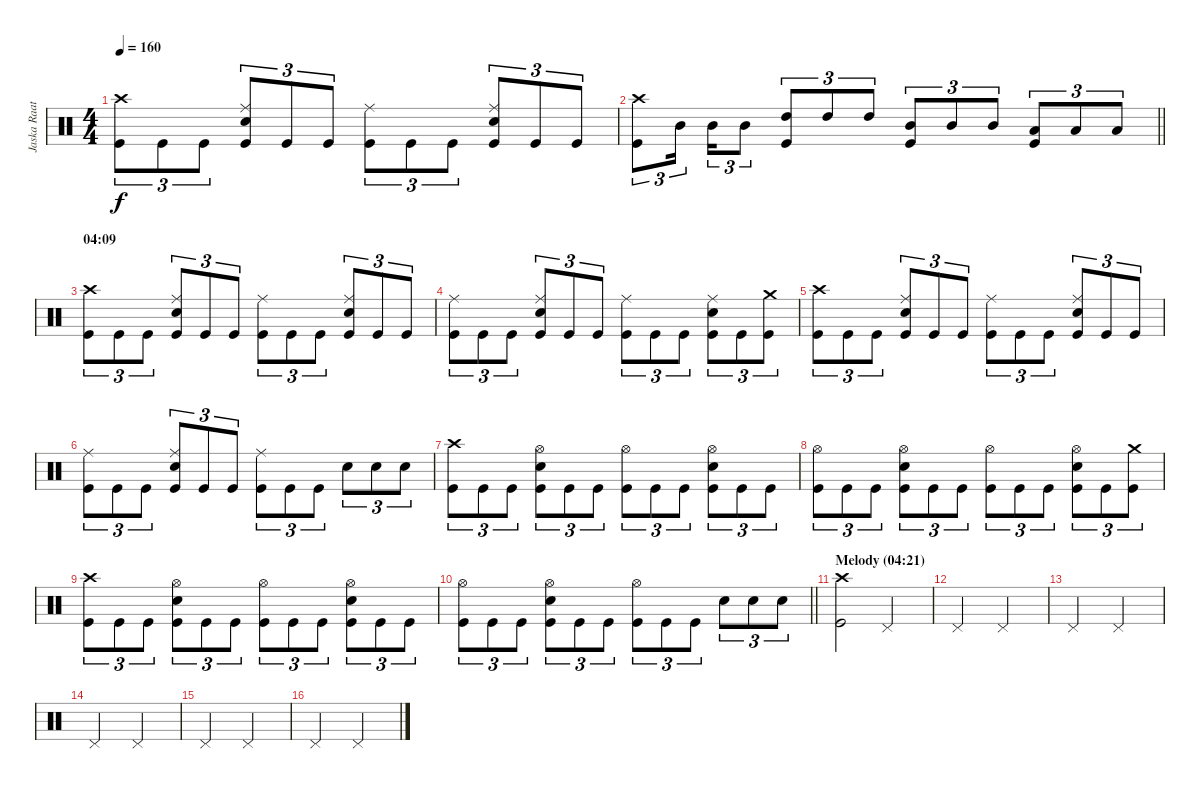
\track ("Jaska Raatikainen" "Jaska Raat") {instrument percussion}
\staff {score}
\articulation defaults
\ts (4 4)
\tempo 160
\clef neutral
\ks c
("Crash high (hit)" "Kick (hit)").8{tu (3 2) dy f} "Kick (hit)".8{tu (3 2)} "Kick (hit)".8{tu (3 2)} ("Ride (middle)" "Electric Snare (hit)" "Kick (hit)").8{tu (3 2)} "Kick (hit)".8{tu (3 2)} "Kick (hit)".8{tu (3 2)} ("Ride (middle)" "Kick (hit)").8{tu (3 2)} "Kick (hit)".8{tu (3 2)} "Kick (hit)".8{tu (3 2)} ("Ride (middle)" "Electric Snare (hit)" "Kick (hit)").8{tu (3 2)} "Kick (hit)".8{tu (3 2)} "Kick (hit)".8{tu (3 2)} |
\barLineRight lightlight
("Crash high (hit)" "Kick (hit)").8{tu (3 2)} "Mid Tom (hit)".16{tu (3 2) beam splitsecondary} "Mid Tom (hit)".16{tu (3 2)} "Mid Tom (hit)".8{tu (3 2)} ("High Tom (hit)" "Kick (hit)").8{tu (3 2)} "High Tom (hit)".8{tu (3 2)} "High Tom (hit)".8{tu (3 2)} ("Mid Tom (hit)" "Kick (hit)").8{tu (3 2)} "Mid Tom (hit)".8{tu (3 2)} "Mid Tom (hit)".8{tu (3 2)} ("Low Tom (hit)" "Kick (hit)").8{tu (3 2)} "Low Tom (hit)".8{tu (3 2)} "Low Tom (hit)".8{tu (3 2)} |
\section ("" "04:09")
("Crash high (hit)" "Kick (hit)").8{tu (3 2)} "Kick (hit)".8{tu (3 2)} "Kick (hit)".8{tu (3 2)} ("Ride (middle)" "Electric Snare (hit)" "Kick (hit)").8{tu (3 2)} "Kick (hit)".8{tu (3 2)} "Kick (hit)".8{tu (3 2)} ("Ride (middle)" "Kick (hit)").8{tu (3 2)} "Kick (hit)".8{tu (3 2)} "Kick (hit)".8{tu (3 2)} ("Ride (middle)" "Electric Snare (hit)" "Kick (hit)").8{tu (3 2)} "Kick (hit)".8{tu (3 2)} "Kick (hit)".8{tu (3 2)} |
("Ride (middle)" "Kick (hit)").8{tu (3 2)} "Kick (hit)".8{tu (3 2)} "Kick (hit)".8{tu (3 2)} ("Ride (middle)" "Electric Snare (hit)" "Kick (hit)").8{tu (3 2)} "Kick (hit)".8{tu (3 2)} "Kick (hit)".8{tu (3 2)} ("Ride (middle)" "Kick (hit)").8{tu (3 2)} "Kick (hit)".8{tu (3 2)} "Kick (hit)".8{tu (3 2)} ("Ride (middle)" "Electric Snare (hit)" "Kick (hit)").8{tu (3 2)} "Kick (hit)".8{tu (3 2)} ("Crash medium (hit)" "Kick (hit)").8{tu (3 2)} |
("Crash high (hit)" "Kick (hit)").8{tu (3 2)} "Kick (hit)".8{tu (3 2)} "Kick (hit)".8{tu (3 2)} ("Ride (middle)" "Electric Snare (hit)" "Kick (hit)").8{tu (3 2)} "Kick (hit)".8{tu (3 2)} "Kick (hit)".8{tu (3 2)} ("Ride (middle)" "Kick (hit)").8{tu (3 2)} "Kick (hit)".8{tu (3 2)} "Kick (hit)".8{tu (3 2)} ("Ride (middle)" "Electric Snare (hit)" "Kick (hit)").8{tu (3 2)} "Kick (hit)".8{tu (3 2)} "Kick (hit)".8{tu (3 2)} |
("Ride (middle)" "Kick (hit)").8{tu (3 2)} "Kick (hit)".8{tu (3 2)} "Kick (hit)".8{tu (3 2)} ("Ride (middle)" "Electric Snare (hit)" "Kick (hit)").8{tu (3 2)} "Kick (hit)".8{tu (3 2)} "Kick (hit)".8{tu (3 2)} ("Ride (middle)" "Kick (hit)").8{tu (3 2)} "Kick (hit)".8{tu (3 2)} "Kick (hit)".8{tu (3 2)} "Electric Snare (hit)".8{tu (3 2)} "Electric Snare (hit)".8{tu (3 2)} "Electric Snare (hit)".8{tu (3 2)} |
("Crash high (hit)" "Kick (hit)").8{tu (3 2)} "Kick (hit)".8{tu (3 2)} "Kick (hit)".8{tu (3 2)} ("Hi-Hat (open)" "Electric Snare (hit)" "Kick (hit)").8{tu (3 2)} "Kick (hit)".8{tu (3 2)} "Kick (hit)".8{tu (3 2)} ("Hi-Hat (open)" "Kick (hit)").8{tu (3 2)} "Kick (hit)".8{tu (3 2)} "Kick (hit)".8{tu (3 2)} ("Hi-Hat (open)" "Electric Snare (hit)" "Kick (hit)").8{tu (3 2)} "Kick (hit)".8{tu (3 2)} "Kick (hit)".8{tu (3 2)} |
("Hi-Hat (open)" "Kick (hit)").8{tu (3 2)} "Kick (hit)".8{tu (3 2)} "Kick (hit)".8{tu (3 2)} ("Hi-Hat (open)" "Electric Snare (hit)" "Kick (hit)").8{tu (3 2)} "Kick (hit)".8{tu (3 2)} "Kick (hit)".8{tu (3 2)} ("Hi-Hat (open)" "Kick (hit)").8{tu (3 2)} "Kick (hit)".8{tu (3 2)} "Kick (hit)".8{tu (3 2)} ("Hi-Hat (open)" "Electric Snare (hit)" "Kick (hit)").8{tu (3 2)} "Kick (hit)".8{tu (3 2)} ("Crash medium (hit)" "Kick (hit)").8{tu (3 2)} |
("Crash high (hit)" "Kick (hit)").8{tu (3 2)} "Kick (hit)".8{tu (3 2)} "Kick (hit)".8{tu (3 2)} ("Hi-Hat (open)" "Electric Snare (hit)" "Kick (hit)").8{tu (3 2)} "Kick (hit)".8{tu (3 2)} "Kick (hit)".8{tu (3 2)} ("Hi-Hat (open)" "Kick (hit)").8{tu (3 2)} "Kick (hit)".8{tu (3 2)} "Kick (hit)".8{tu (3 2)} ("Hi-Hat (open)" "Electric Snare (hit)" "Kick (hit)").8{tu (3 2)} "Kick (hit)".8{tu (3 2)} "Kick (hit)".8{tu (3 2)} |
\barLineRight lightlight
("Hi-Hat (open)" "Kick (hit)").8{tu (3 2)} "Kick (hit)".8{tu (3 2)} "Kick (hit)".8{tu (3 2)} ("Hi-Hat (open)" "Electric Snare (hit)" "Kick (hit)").8{tu (3 2)} "Kick (hit)".8{tu (3 2)} "Kick (hit)".8{tu (3 2)} ("Hi-Hat (open)" "Kick (hit)").8{tu (3 2)} "Kick (hit)".8{tu (3 2)} "Kick (hit)".8{tu (3 2)} "Electric Snare (hit)".8{tu (3 2)} "Electric Snare (hit)".8{tu (3 2)} "Electric Snare (hit)".8{tu (3 2)} |
\section ("" "Melody (04:21)")
("Crash high (hit)" "Kick (hit)").2 "Pedal Hi-Hat (hit)".2 |
"Pedal Hi-Hat (hit)".2 "Pedal Hi-Hat (hit)".2 |
"Pedal Hi-Hat (hit)".2 "Pedal Hi-Hat (hit)".2 |
"Pedal Hi-Hat (hit)".2 "Pedal Hi-Hat (hit)".2 |
"Pedal Hi-Hat (hit)".2 "Pedal Hi-Hat (hit)".2 |
"Pedal Hi-Hat (hit)".2 "Pedal Hi-Hat (hit)".2
